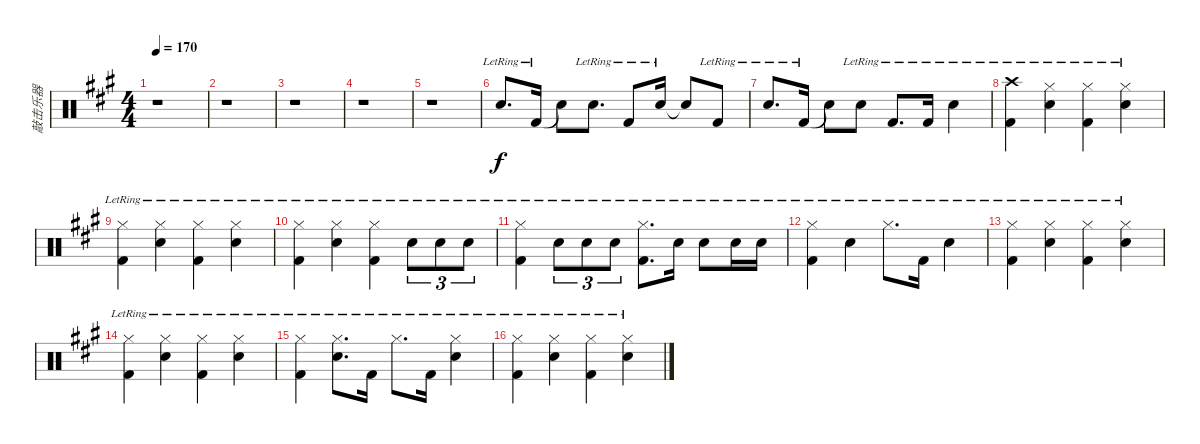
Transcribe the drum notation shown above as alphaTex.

\track ("敲击乐器" "敲击乐器") {instrument percussion}
\staff {score}
\articulation defaults
\ts (4 4)
\tempo 170
\clef neutral
\ks a
r.1{dy f} |
r.1 |
r.1 |
r.1 |
r.1 |
"Snare (hit) 2"{lr}.8{d} "Kick (hit) 2"{lr}.16 "Snare (hit)"{t}.8 "Snare (hit) 2"{lr}.8{d} "Kick (hit) 2"{lr}.8 "Snare (hit) 2"{lr}.16 "Snare (hit)"{t}.8 "Kick (hit) 2"{lr}.8 |
"Snare (hit) 2"{lr}.8{d} "Kick (hit) 2"{lr}.16 "Snare (hit)"{t}.8 "Snare (hit) 2"{lr}.8 "Kick (hit) 2"{lr}.8{d} "Kick (hit) 2"{lr}.16 "Snare (hit) 2"{lr}.4 |
("Crash high (hit)"{lr} "Kick (hit) 2"{lr}).4 ("Hi-Hat (closed)"{lr} "Snare (hit) 2"{lr}).4 ("Hi-Hat (closed)"{lr} "Kick (hit) 2"{lr}).4 ("Hi-Hat (closed)"{lr} "Snare (hit) 2"{lr}).4 |
("Hi-Hat (closed)"{lr} "Kick (hit) 2"{lr}).4 ("Hi-Hat (closed)"{lr} "Snare (hit) 2"{lr}).4 ("Hi-Hat (closed)"{lr} "Kick (hit) 2"{lr}).4 ("Hi-Hat (closed)"{lr} "Snare (hit) 2"{lr}).4 |
("Hi-Hat (closed)"{lr} "Kick (hit) 2"{lr}).4 ("Hi-Hat (closed)"{lr} "Snare (hit) 2"{lr}).4 ("Hi-Hat (closed)"{lr} "Kick (hit) 2"{lr}).4 "Snare (hit) 2"{lr}.8{tu (3 2)} "Snare (hit) 2"{lr}.8{tu (3 2)} "Snare (hit) 2"{lr}.8{tu (3 2)} |
("Hi-Hat (closed)"{lr} "Kick (hit) 2"{lr}).4 "Snare (hit) 2"{lr}.8{tu (3 2)} "Snare (hit) 2"{lr}.8{tu (3 2)} "Snare (hit) 2"{lr}.8{tu (3 2)} ("Hi-Hat (closed)"{lr} "Kick (hit) 2"{lr}).8{d} "Snare (hit) 2"{lr}.16 "Snare (hit) 2"{lr}.8 "Snare (hit) 2"{lr}.16 "Snare (hit) 2"{lr}.16 |
("Hi-Hat (closed)"{lr} "Kick (hit) 2"{lr}).4 "Snare (hit) 2"{lr}.4 "Hi-Hat (closed)"{lr}.8{d} "Kick (hit) 2"{lr}.16 "Snare (hit) 2"{lr}.4 |
("Hi-Hat (closed)"{lr} "Kick (hit) 2"{lr}).4 ("Hi-Hat (closed)"{lr} "Snare (hit) 2"{lr}).4 ("Hi-Hat (closed)"{lr} "Kick (hit) 2"{lr}).4 ("Hi-Hat (closed)"{lr} "Snare (hit) 2"{lr}).4 |
("Hi-Hat (closed)"{lr} "Kick (hit) 2"{lr}).4 ("Hi-Hat (closed)"{lr} "Snare (hit) 2"{lr}).4 ("Hi-Hat (closed)"{lr} "Kick (hit) 2"{lr}).4 ("Hi-Hat (closed)"{lr} "Snare (hit) 2"{lr}).4 |
("Hi-Hat (closed)"{lr} "Kick (hit) 2"{lr}).4 ("Hi-Hat (closed)"{lr} "Snare (hit) 2"{lr}).8{d} "Kick (hit) 2"{lr}.16 "Hi-Hat (closed)"{lr}.8{d} "Kick (hit) 2"{lr}.16 ("Hi-Hat (closed)"{lr} "Snare (hit) 2"{lr}).4 |
("Hi-Hat (closed)"{lr} "Kick (hit) 2"{lr}).4 ("Hi-Hat (closed)"{lr} "Snare (hit) 2"{lr}).4 ("Hi-Hat (closed)"{lr} "Kick (hit) 2"{lr}).4 ("Hi-Hat (closed)"{lr} "Snare (hit) 2"{lr}).4
